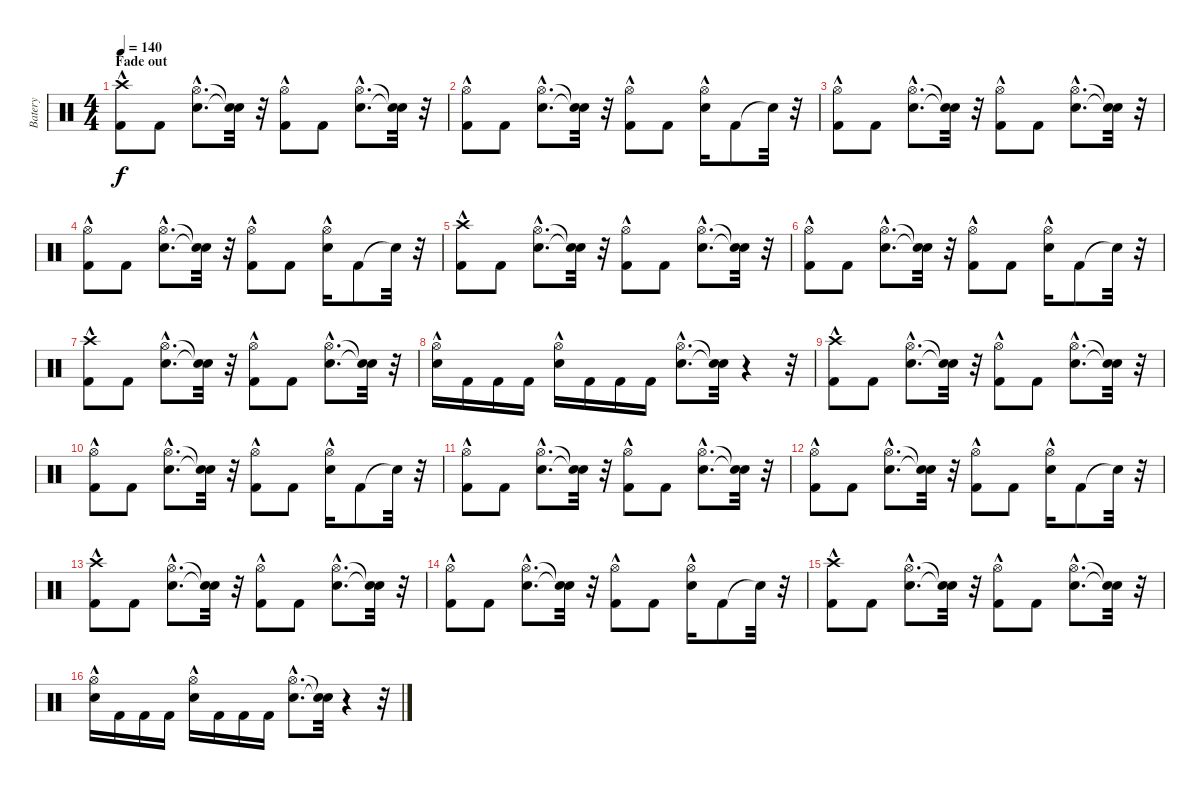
\track ("Batery" "Batery") {instrument percussion}
\staff {score}
\articulation defaults
\ts (4 4)
\section ("" "Fade out")
\tempo 140
\clef neutral
\ks c
("Kick (hit) 2" "Crash high (hit)"{hac}).8{dy f} "Kick (hit) 2".8 ("Snare (hit) 2"{hac} "Hi-Hat (open)"{hac}).8{d} ("Snare (hit)"{t} "Snare (hit)"{t}).32 r.32 ("Kick (hit) 2" "Hi-Hat (open)"{hac}).8 "Kick (hit) 2".8 ("Hi-Hat (open)"{hac} "Snare (hit) 2"{hac}).8{d} ("Snare (hit)"{t} "Snare (hit)"{t}).32 r.32 |
("Kick (hit) 2" "Hi-Hat (open)"{hac}).8 "Kick (hit) 2".8 ("Snare (hit) 2"{hac} "Hi-Hat (open)"{hac}).8{d} ("Snare (hit)"{t} "Snare (hit)"{t}).32 r.32 ("Kick (hit) 2" "Hi-Hat (open)"{hac}).8 "Kick (hit) 2".8 ("Hi-Hat (open)"{hac} "Snare (hit) 2"{hac}).16 "Kick (hit) 2".8 "Snare (hit)"{t}.32 r.32 |
("Kick (hit) 2" "Hi-Hat (open)"{hac}).8 "Kick (hit) 2".8 ("Snare (hit) 2"{hac} "Hi-Hat (open)"{hac}).8{d} ("Snare (hit)"{t} "Snare (hit)"{t}).32 r.32 ("Kick (hit) 2" "Hi-Hat (open)"{hac}).8 "Kick (hit) 2".8 ("Hi-Hat (open)"{hac} "Snare (hit) 2"{hac}).8{d} ("Snare (hit)"{t} "Snare (hit)"{t}).32 r.32 |
("Kick (hit) 2" "Hi-Hat (open)"{hac}).8 "Kick (hit) 2".8 ("Snare (hit) 2"{hac} "Hi-Hat (open)"{hac}).8{d} ("Snare (hit)"{t} "Snare (hit)"{t}).32 r.32 ("Kick (hit) 2" "Hi-Hat (open)"{hac}).8 "Kick (hit) 2".8 ("Hi-Hat (open)"{hac} "Snare (hit) 2"{hac}).16 "Kick (hit) 2".8 "Snare (hit)"{t}.32 r.32 |
("Kick (hit) 2" "Crash high (hit)"{hac}).8 "Kick (hit) 2".8 ("Snare (hit) 2"{hac} "Hi-Hat (open)"{hac}).8{d} ("Snare (hit)"{t} "Snare (hit)"{t}).32 r.32 ("Kick (hit) 2" "Hi-Hat (open)"{hac}).8 "Kick (hit) 2".8 ("Hi-Hat (open)"{hac} "Snare (hit) 2"{hac}).8{d} ("Snare (hit)"{t} "Snare (hit)"{t}).32 r.32 |
("Kick (hit) 2" "Hi-Hat (open)"{hac}).8 "Kick (hit) 2".8 ("Snare (hit) 2"{hac} "Hi-Hat (open)"{hac}).8{d} ("Snare (hit)"{t} "Snare (hit)"{t}).32 r.32 ("Kick (hit) 2" "Hi-Hat (open)"{hac}).8 "Kick (hit) 2".8 ("Hi-Hat (open)"{hac} "Snare (hit) 2"{hac}).16 "Kick (hit) 2".8 "Snare (hit)"{t}.32 r.32 |
("Kick (hit) 2" "Crash high (hit)"{hac}).8 "Kick (hit) 2".8 ("Snare (hit) 2"{hac} "Hi-Hat (open)"{hac}).8{d} ("Snare (hit)"{t} "Snare (hit)"{t}).32 r.32 ("Kick (hit) 2" "Hi-Hat (open)"{hac}).8 "Kick (hit) 2".8 ("Hi-Hat (open)"{hac} "Snare (hit) 2"{hac}).8{d} ("Snare (hit)"{t} "Snare (hit)"{t}).32 r.32 |
("Snare (hit) 2"{hac} "Hi-Hat (open)"{hac}).16 "Kick (hit) 2".16 "Kick (hit) 2".16 "Kick (hit) 2".16 ("Snare (hit) 2"{hac} "Hi-Hat (open)"{hac}).16 "Kick (hit) 2".16 "Kick (hit) 2".16 "Kick (hit) 2".16 ("Snare (hit) 2"{hac} "Hi-Hat (open)"{hac}).8{d} ("Snare (hit)"{t} "Snare (hit)"{t}).32 r.4 r.32 |
("Kick (hit) 2" "Crash high (hit)"{hac}).8 "Kick (hit) 2".8 ("Snare (hit) 2"{hac} "Hi-Hat (open)"{hac}).8{d} ("Snare (hit)"{t} "Snare (hit)"{t}).32 r.32 ("Kick (hit) 2" "Hi-Hat (open)"{hac}).8 "Kick (hit) 2".8 ("Hi-Hat (open)"{hac} "Snare (hit) 2"{hac}).8{d} ("Snare (hit)"{t} "Snare (hit)"{t}).32 r.32 |
("Kick (hit) 2" "Hi-Hat (open)"{hac}).8 "Kick (hit) 2".8 ("Snare (hit) 2"{hac} "Hi-Hat (open)"{hac}).8{d} ("Snare (hit)"{t} "Snare (hit)"{t}).32 r.32 ("Kick (hit) 2" "Hi-Hat (open)"{hac}).8 "Kick (hit) 2".8 ("Hi-Hat (open)"{hac} "Snare (hit) 2"{hac}).16 "Kick (hit) 2".8 "Snare (hit)"{t}.32 r.32 |
("Kick (hit) 2" "Hi-Hat (open)"{hac}).8 "Kick (hit) 2".8 ("Snare (hit) 2"{hac} "Hi-Hat (open)"{hac}).8{d} ("Snare (hit)"{t} "Snare (hit)"{t}).32 r.32 ("Kick (hit) 2" "Hi-Hat (open)"{hac}).8 "Kick (hit) 2".8 ("Hi-Hat (open)"{hac} "Snare (hit) 2"{hac}).8{d} ("Snare (hit)"{t} "Snare (hit)"{t}).32 r.32 |
("Kick (hit) 2" "Hi-Hat (open)"{hac}).8 "Kick (hit) 2".8 ("Snare (hit) 2"{hac} "Hi-Hat (open)"{hac}).8{d} ("Snare (hit)"{t} "Snare (hit)"{t}).32 r.32 ("Kick (hit) 2" "Hi-Hat (open)"{hac}).8 "Kick (hit) 2".8 ("Hi-Hat (open)"{hac} "Snare (hit) 2"{hac}).16 "Kick (hit) 2".8 "Snare (hit)"{t}.32 r.32 |
("Kick (hit) 2" "Crash high (hit)"{hac}).8 "Kick (hit) 2".8 ("Snare (hit) 2"{hac} "Hi-Hat (open)"{hac}).8{d} ("Snare (hit)"{t} "Snare (hit)"{t}).32 r.32 ("Kick (hit) 2" "Hi-Hat (open)"{hac}).8 "Kick (hit) 2".8 ("Hi-Hat (open)"{hac} "Snare (hit) 2"{hac}).8{d} ("Snare (hit)"{t} "Snare (hit)"{t}).32 r.32 |
("Kick (hit) 2" "Hi-Hat (open)"{hac}).8 "Kick (hit) 2".8 ("Snare (hit) 2"{hac} "Hi-Hat (open)"{hac}).8{d} ("Snare (hit)"{t} "Snare (hit)"{t}).32 r.32 ("Kick (hit) 2" "Hi-Hat (open)"{hac}).8 "Kick (hit) 2".8 ("Hi-Hat (open)"{hac} "Snare (hit) 2"{hac}).16 "Kick (hit) 2".8 "Snare (hit)"{t}.32 r.32 |
("Kick (hit) 2" "Crash high (hit)"{hac}).8 "Kick (hit) 2".8 ("Snare (hit) 2"{hac} "Hi-Hat (open)"{hac}).8{d} ("Snare (hit)"{t} "Snare (hit)"{t}).32 r.32 ("Kick (hit) 2" "Hi-Hat (open)"{hac}).8 "Kick (hit) 2".8 ("Hi-Hat (open)"{hac} "Snare (hit) 2"{hac}).8{d} ("Snare (hit)"{t} "Snare (hit)"{t}).32 r.32 |
("Snare (hit) 2"{hac} "Hi-Hat (open)"{hac}).16 "Kick (hit) 2".16 "Kick (hit) 2".16 "Kick (hit) 2".16 ("Snare (hit) 2"{hac} "Hi-Hat (open)"{hac}).16 "Kick (hit) 2".16 "Kick (hit) 2".16 "Kick (hit) 2".16 ("Snare (hit) 2"{hac} "Hi-Hat (open)"{hac}).8{d} ("Snare (hit)"{t} "Snare (hit)"{t}).32 r.4 r.32
